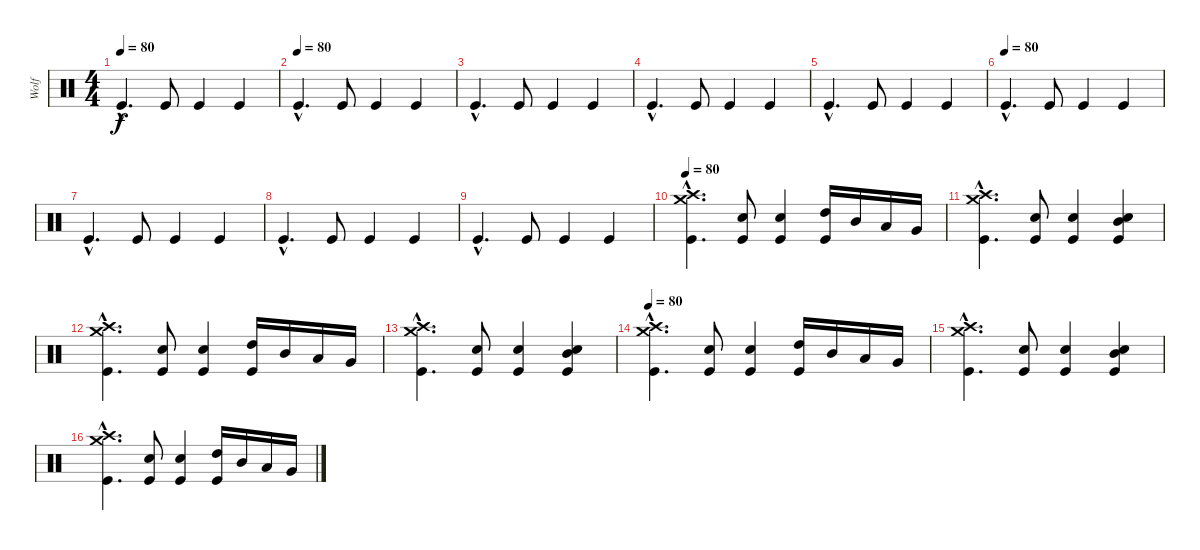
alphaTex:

\track ("Wolf" "Wolf") {instrument percussion}
\staff {score}
\articulation defaults
\ts (4 4)
\tempo 80
\clef neutral
\ks c "Kick (hit)"{hac}.4{d dy f} "Kick (hit)".8 "Kick (hit)".4 "Kick (hit)".4
|
\tempo (80)
"Kick (hit)"{hac}.4{d} "Kick (hit)".8 "Kick (hit)".4 "Kick (hit)".4 |
"Kick (hit)"{hac}.4{d} "Kick (hit)".8 "Kick (hit)".4 "Kick (hit)".4 |
"Kick (hit)"{hac}.4{d} "Kick (hit)".8 "Kick (hit)".4 "Kick (hit)".4 |
"Kick (hit)"{hac}.4{d} "Kick (hit)".8 "Kick (hit)".4 "Kick (hit)".4 |
\tempo (80)
"Kick (hit)"{hac}.4{d} "Kick (hit)".8 "Kick (hit)".4 "Kick (hit)".4 |
"Kick (hit)"{hac}.4{d} "Kick (hit)".8 "Kick (hit)".4 "Kick (hit)".4 |
"Kick (hit)"{hac}.4{d} "Kick (hit)".8 "Kick (hit)".4 "Kick (hit)".4 |
"Kick (hit)"{hac}.4{d} "Kick (hit)".8 "Kick (hit)".4 "Kick (hit)".4 |
\tempo 80
("Crash high (hit)"{hac} "Crash medium (hit)"{hac} "Kick (hit)"{hac}).4{d} ("Snare (hit) 2" "Kick (hit)").8 ("Snare (hit) 2" "Kick (hit)").4 ("High Tom (hit)" "Kick (hit)").16 "Mid Tom (hit)".16 "Low Tom (hit)".16 "Very Low Tom (hit)".16 |
("Crash high (hit)"{hac} "Crash medium (hit)"{hac} "Kick (hit)"{hac}).4{d} ("Snare (hit) 2" "Kick (hit)").8 ("Snare (hit) 2" "Kick (hit)").4 ("Mid Tom (hit)" "Snare (hit) 2" "Kick (hit)").4 |
("Crash high (hit)"{hac} "Crash medium (hit)"{hac} "Kick (hit)"{hac}).4{d} ("Snare (hit) 2" "Kick (hit)").8 ("Snare (hit) 2" "Kick (hit)").4 ("High Tom (hit)" "Kick (hit)").16 "Mid Tom (hit)".16 "Low Tom (hit)".16 "Very Low Tom (hit)".16 |
("Crash high (hit)"{hac} "Crash medium (hit)"{hac} "Kick (hit)"{hac}).4{d} ("Snare (hit) 2" "Kick (hit)").8 ("Snare (hit) 2" "Kick (hit)").4 ("Mid Tom (hit)" "Snare (hit) 2" "Kick (hit)").4 |
\tempo 80
("Crash high (hit)"{hac} "Crash medium (hit)"{hac} "Kick (hit)"{hac}).4{d} ("Snare (hit) 2" "Kick (hit)").8 ("Snare (hit) 2" "Kick (hit)").4 ("High Tom (hit)" "Kick (hit)").16 "Mid Tom (hit)".16 "Low Tom (hit)".16 "Very Low Tom (hit)".16 |
("Crash high (hit)"{hac} "Crash medium (hit)"{hac} "Kick (hit)"{hac}).4{d} ("Snare (hit) 2" "Kick (hit)").8 ("Snare (hit) 2" "Kick (hit)").4 ("Mid Tom (hit)" "Snare (hit) 2" "Kick (hit)").4 |
("Crash high (hit)"{hac} "Crash medium (hit)"{hac} "Kick (hit)"{hac}).4{d} ("Snare (hit) 2" "Kick (hit)").8 ("Snare (hit) 2" "Kick (hit)").4 ("High Tom (hit)" "Kick (hit)").16 "Mid Tom (hit)".16 "Low Tom (hit)".16 "Very Low Tom (hit)".16
